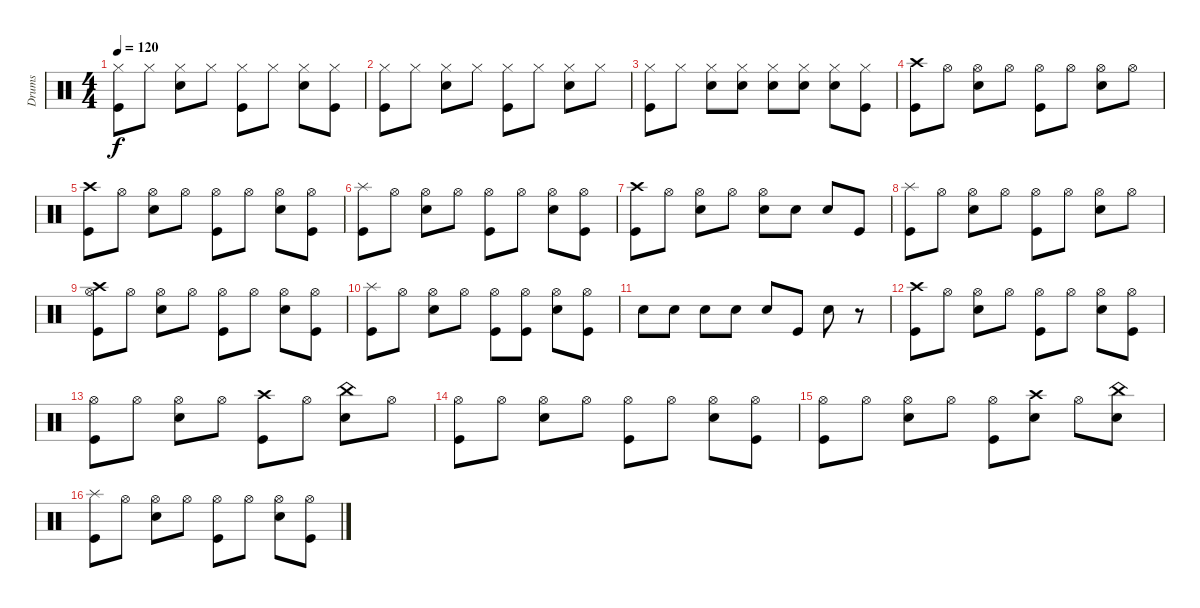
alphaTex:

\track ("Drums" "Drums") {instrument percussion}
\staff {score}
\articulation defaults
\ts (4 4)
\tempo 120
\clef neutral
\ks c
("Hi-Hat (closed)" "Kick (hit)").8{dy f} "Hi-Hat (closed)".8 ("Hi-Hat (closed)" "Snare (hit) 2").8 "Hi-Hat (closed)".8 ("Hi-Hat (closed)" "Kick (hit)").8 "Hi-Hat (closed)".8 ("Hi-Hat (closed)" "Snare (hit) 2").8 ("Hi-Hat (closed)" "Kick (hit)").8 |
("Hi-Hat (closed)" "Kick (hit)").8 "Hi-Hat (closed)".8 ("Hi-Hat (closed)" "Snare (hit) 2").8 "Hi-Hat (closed)".8 ("Hi-Hat (closed)" "Kick (hit)").8 "Hi-Hat (closed)".8 ("Hi-Hat (closed)" "Snare (hit) 2").8 "Hi-Hat (closed)".8 |
("Hi-Hat (closed)" "Kick (hit)").8 "Hi-Hat (closed)".8 ("Hi-Hat (closed)" "Snare (hit) 2").8 ("Hi-Hat (closed)" "Snare (hit) 2").8 ("Hi-Hat (closed)" "Snare (hit) 2").8 ("Hi-Hat (closed)" "Snare (hit) 2").8 ("Hi-Hat (closed)" "Snare (hit) 2").8 ("Hi-Hat (closed)" "Kick (hit)").8 |
("Kick (hit)" "Crash high (hit)").8 "Hi-Hat (open)".8 ("Hi-Hat (open)" "Snare (hit) 2").8 "Hi-Hat (open)".8 ("Hi-Hat (open)" "Kick (hit)").8 "Hi-Hat (open)".8 ("Hi-Hat (open)" "Snare (hit) 2").8 "Hi-Hat (open)".8 |
("Kick (hit)" "Crash high (hit)").8 "Hi-Hat (open)".8 ("Hi-Hat (open)" "Snare (hit) 2").8 "Hi-Hat (open)".8 ("Hi-Hat (open)" "Kick (hit)").8 "Hi-Hat (open)".8 ("Hi-Hat (open)" "Snare (hit) 2").8 ("Hi-Hat (open)" "Kick (hit)").8 |
("Kick (hit)" "Splash (hit)").8 "Hi-Hat (open)".8 ("Hi-Hat (open)" "Snare (hit) 2").8 "Hi-Hat (open)".8 ("Hi-Hat (open)" "Kick (hit)").8 "Hi-Hat (open)".8 ("Hi-Hat (open)" "Snare (hit) 2").8 ("Hi-Hat (open)" "Kick (hit)").8 |
("Kick (hit)" "Crash high (hit)").8 "Hi-Hat (open)".8 ("Hi-Hat (open)" "Snare (hit) 2").8 "Hi-Hat (open)".8 ("Hi-Hat (open)" "Snare (hit) 2").8 "Snare (hit) 2".8 "Snare (hit) 2".8 "Kick (hit)".8 |
("Kick (hit)" "Splash (hit)").8 "Hi-Hat (open)".8 ("Hi-Hat (open)" "Snare (hit) 2").8 "Hi-Hat (open)".8 ("Hi-Hat (open)" "Kick (hit)").8 "Hi-Hat (open)".8 ("Hi-Hat (open)" "Snare (hit) 2").8 "Hi-Hat (open)".8 |
("Hi-Hat (open)" "Kick (hit)" "Crash high (hit)").8 "Hi-Hat (open)".8 ("Hi-Hat (open)" "Snare (hit) 2").8 "Hi-Hat (open)".8 ("Hi-Hat (open)" "Kick (hit)").8 "Hi-Hat (open)".8 ("Hi-Hat (open)" "Snare (hit) 2").8 ("Hi-Hat (open)" "Kick (hit)").8 |
("Kick (hit)" "Splash (hit)").8 "Hi-Hat (open)".8 ("Hi-Hat (open)" "Snare (hit) 2").8 "Hi-Hat (open)".8 ("Hi-Hat (open)" "Kick (hit)").8 ("Hi-Hat (open)" "Kick (hit)").8 ("Hi-Hat (open)" "Snare (hit) 2").8 ("Hi-Hat (open)" "Kick (hit)").8 |
"Snare (hit) 2".8 "Snare (hit) 2".8 "Snare (hit) 2".8 "Snare (hit) 2".8 "Snare (hit) 2".8 "Kick (hit)".8 "Snare (hit) 2".8 r.8 |
("Kick (hit)" "Crash high (hit)").8 "Hi-Hat (open)".8 ("Hi-Hat (open)" "Snare (hit) 2").8 "Hi-Hat (open)".8 ("Hi-Hat (open)" "Kick (hit)").8 "Hi-Hat (open)".8 ("Hi-Hat (open)" "Snare (hit) 2").8 ("Hi-Hat (open)" "Kick (hit)").8 |
("Hi-Hat (open)" "Kick (hit)").8 "Hi-Hat (open)".8 ("Hi-Hat (open)" "Snare (hit) 2").8 "Hi-Hat (open)".8 ("Kick (hit)" "Crash high (hit)").8 "Hi-Hat (open)".8 ("Snare (hit) 2" "China (hit)").8 "Hi-Hat (open)".8 |
("Hi-Hat (open)" "Kick (hit)").8 "Hi-Hat (open)".8 ("Hi-Hat (open)" "Snare (hit) 2").8 "Hi-Hat (open)".8 ("Hi-Hat (open)" "Kick (hit)").8 "Hi-Hat (open)".8 ("Hi-Hat (open)" "Snare (hit) 2").8 ("Hi-Hat (open)" "Kick (hit)").8 |
("Hi-Hat (open)" "Kick (hit)").8 "Hi-Hat (open)".8 ("Hi-Hat (open)" "Snare (hit) 2").8 "Hi-Hat (open)".8 ("Hi-Hat (open)" "Kick (hit)").8 ("Snare (hit) 2" "Crash high (hit)").8 "Hi-Hat (open)".8 ("Snare (hit) 2" "China (hit)").8 |
("Kick (hit)" "Splash (hit)").8 "Hi-Hat (open)".8 ("Hi-Hat (open)" "Snare (hit) 2").8 "Hi-Hat (open)".8 ("Hi-Hat (open)" "Kick (hit)").8 "Hi-Hat (open)".8 ("Hi-Hat (open)" "Snare (hit) 2").8 ("Hi-Hat (open)" "Kick (hit)").8
